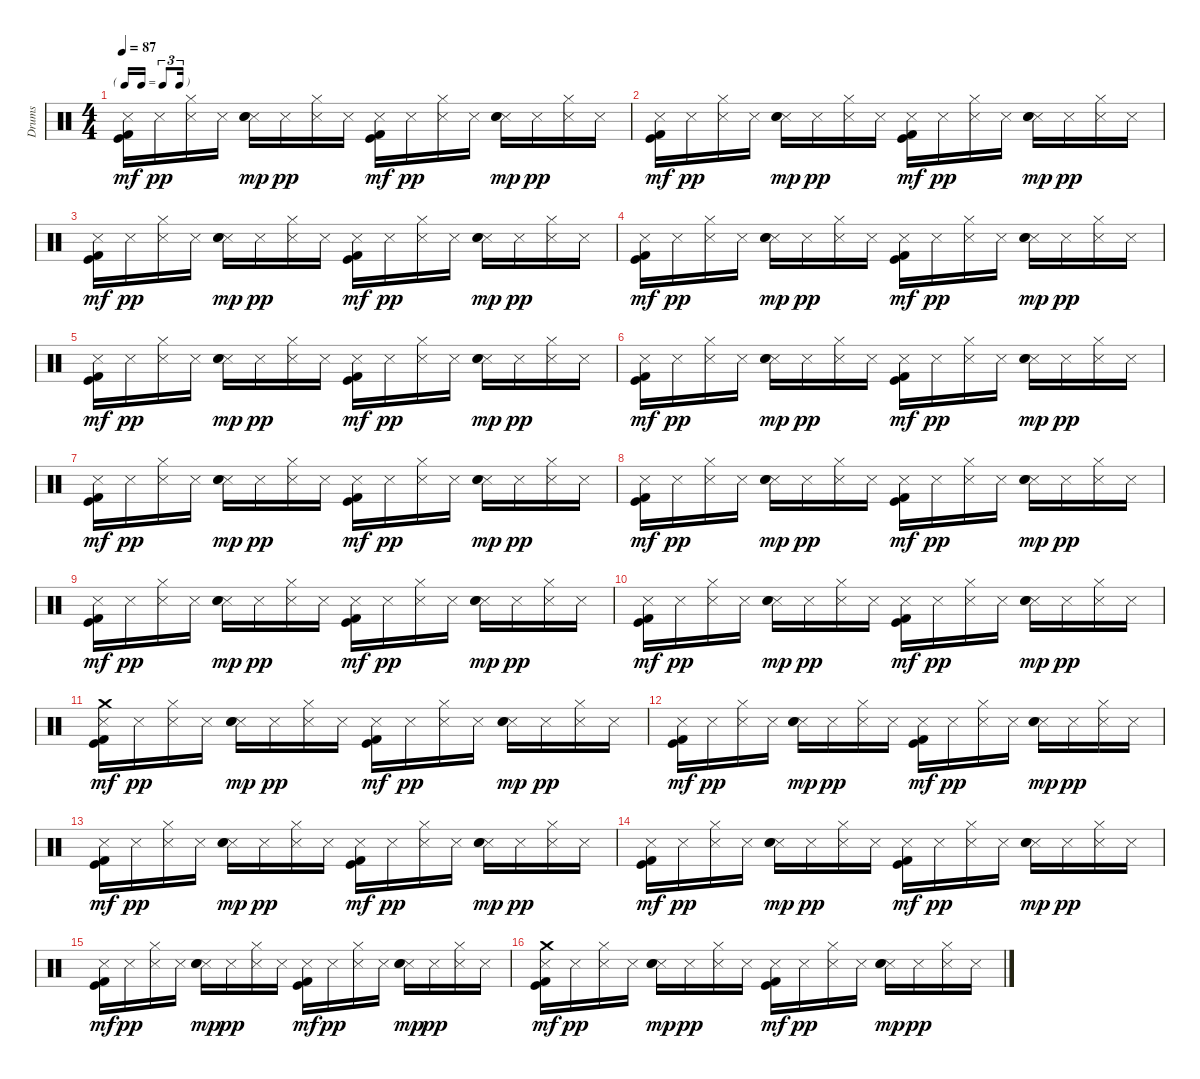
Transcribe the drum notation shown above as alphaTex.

\track ("Drums" "Drums") {instrument percussion}
\staff {score}
\articulation defaults
\ts (4 4)
\tf triplet16th
\tempo 87
\clef neutral
\ks c
("Metronome (hit)" "Kick (hit)" "Kick (hit) 2").16{dy mf} "Metronome (hit)".16{dy pp} ("Hi-Hat (closed)" "Metronome (hit)").16 "Metronome (hit)".16 ("Metronome (hit)" "Electric Snare (hit)" "Snare (hit) 2").16{dy mp} "Metronome (hit)".16{dy pp} ("Hi-Hat (closed)" "Metronome (hit)").16 "Metronome (hit)".16 ("Metronome (hit)" "Kick (hit)" "Kick (hit) 2").16{dy mf} "Metronome (hit)".16{dy pp} ("Hi-Hat (closed)" "Metronome (hit)").16 "Metronome (hit)".16 ("Metronome (hit)" "Electric Snare (hit)" "Snare (hit) 2").16{dy mp} "Metronome (hit)".16{dy pp} ("Hi-Hat (closed)" "Metronome (hit)").16 "Metronome (hit)".16 |
("Metronome (hit)" "Kick (hit)" "Kick (hit) 2").16{dy mf} "Metronome (hit)".16{dy pp} ("Hi-Hat (closed)" "Metronome (hit)").16 "Metronome (hit)".16 ("Metronome (hit)" "Electric Snare (hit)" "Snare (hit) 2").16{dy mp} "Metronome (hit)".16{dy pp} ("Hi-Hat (closed)" "Metronome (hit)").16 "Metronome (hit)".16 ("Metronome (hit)" "Kick (hit)" "Kick (hit) 2").16{dy mf} "Metronome (hit)".16{dy pp} ("Hi-Hat (closed)" "Metronome (hit)").16 "Metronome (hit)".16 ("Metronome (hit)" "Electric Snare (hit)" "Snare (hit) 2").16{dy mp} "Metronome (hit)".16{dy pp} ("Hi-Hat (closed)" "Metronome (hit)").16 "Metronome (hit)".16 |
("Metronome (hit)" "Kick (hit)" "Kick (hit) 2").16{dy mf} "Metronome (hit)".16{dy pp} ("Hi-Hat (closed)" "Metronome (hit)").16 "Metronome (hit)".16 ("Metronome (hit)" "Electric Snare (hit)" "Snare (hit) 2").16{dy mp} "Metronome (hit)".16{dy pp} ("Hi-Hat (closed)" "Metronome (hit)").16 "Metronome (hit)".16 ("Metronome (hit)" "Kick (hit)" "Kick (hit) 2").16{dy mf} "Metronome (hit)".16{dy pp} ("Hi-Hat (closed)" "Metronome (hit)").16 "Metronome (hit)".16 ("Metronome (hit)" "Electric Snare (hit)" "Snare (hit) 2").16{dy mp} "Metronome (hit)".16{dy pp} ("Hi-Hat (closed)" "Metronome (hit)").16 "Metronome (hit)".16 |
("Metronome (hit)" "Kick (hit)" "Kick (hit) 2").16{dy mf} "Metronome (hit)".16{dy pp} ("Hi-Hat (closed)" "Metronome (hit)").16 "Metronome (hit)".16 ("Metronome (hit)" "Electric Snare (hit)" "Snare (hit) 2").16{dy mp} "Metronome (hit)".16{dy pp} ("Hi-Hat (closed)" "Metronome (hit)").16 "Metronome (hit)".16 ("Metronome (hit)" "Kick (hit)" "Kick (hit) 2").16{dy mf} "Metronome (hit)".16{dy pp} ("Hi-Hat (closed)" "Metronome (hit)").16 "Metronome (hit)".16 ("Metronome (hit)" "Electric Snare (hit)" "Snare (hit) 2").16{dy mp} "Metronome (hit)".16{dy pp} ("Hi-Hat (closed)" "Metronome (hit)").16 "Metronome (hit)".16 |
("Metronome (hit)" "Kick (hit)" "Kick (hit) 2").16{dy mf} "Metronome (hit)".16{dy pp} ("Hi-Hat (closed)" "Metronome (hit)").16 "Metronome (hit)".16 ("Metronome (hit)" "Electric Snare (hit)" "Snare (hit) 2").16{dy mp} "Metronome (hit)".16{dy pp} ("Hi-Hat (closed)" "Metronome (hit)").16 "Metronome (hit)".16 ("Metronome (hit)" "Kick (hit)" "Kick (hit) 2").16{dy mf} "Metronome (hit)".16{dy pp} ("Hi-Hat (closed)" "Metronome (hit)").16 "Metronome (hit)".16 ("Metronome (hit)" "Electric Snare (hit)" "Snare (hit) 2").16{dy mp} "Metronome (hit)".16{dy pp} ("Hi-Hat (closed)" "Metronome (hit)").16 "Metronome (hit)".16 |
("Metronome (hit)" "Kick (hit)" "Kick (hit) 2").16{dy mf} "Metronome (hit)".16{dy pp} ("Hi-Hat (closed)" "Metronome (hit)").16 "Metronome (hit)".16 ("Metronome (hit)" "Electric Snare (hit)" "Snare (hit) 2").16{dy mp} "Metronome (hit)".16{dy pp} ("Hi-Hat (closed)" "Metronome (hit)").16 "Metronome (hit)".16 ("Metronome (hit)" "Kick (hit)" "Kick (hit) 2").16{dy mf} "Metronome (hit)".16{dy pp} ("Hi-Hat (closed)" "Metronome (hit)").16 "Metronome (hit)".16 ("Metronome (hit)" "Electric Snare (hit)" "Snare (hit) 2").16{dy mp} "Metronome (hit)".16{dy pp} ("Hi-Hat (closed)" "Metronome (hit)").16 "Metronome (hit)".16 |
("Metronome (hit)" "Kick (hit)" "Kick (hit) 2").16{dy mf} "Metronome (hit)".16{dy pp} ("Hi-Hat (closed)" "Metronome (hit)").16 "Metronome (hit)".16 ("Metronome (hit)" "Electric Snare (hit)" "Snare (hit) 2").16{dy mp} "Metronome (hit)".16{dy pp} ("Hi-Hat (closed)" "Metronome (hit)").16 "Metronome (hit)".16 ("Metronome (hit)" "Kick (hit)" "Kick (hit) 2").16{dy mf} "Metronome (hit)".16{dy pp} ("Hi-Hat (closed)" "Metronome (hit)").16 "Metronome (hit)".16 ("Metronome (hit)" "Electric Snare (hit)" "Snare (hit) 2").16{dy mp} "Metronome (hit)".16{dy pp} ("Hi-Hat (closed)" "Metronome (hit)").16 "Metronome (hit)".16 |
("Metronome (hit)" "Kick (hit)" "Kick (hit) 2").16{dy mf} "Metronome (hit)".16{dy pp} ("Hi-Hat (closed)" "Metronome (hit)").16 "Metronome (hit)".16 ("Metronome (hit)" "Electric Snare (hit)" "Snare (hit) 2").16{dy mp} "Metronome (hit)".16{dy pp} ("Hi-Hat (closed)" "Metronome (hit)").16 "Metronome (hit)".16 ("Metronome (hit)" "Kick (hit)" "Kick (hit) 2").16{dy mf} "Metronome (hit)".16{dy pp} ("Hi-Hat (closed)" "Metronome (hit)").16 "Metronome (hit)".16 ("Metronome (hit)" "Electric Snare (hit)" "Snare (hit) 2").16{dy mp} "Metronome (hit)".16{dy pp} ("Hi-Hat (closed)" "Metronome (hit)").16 "Metronome (hit)".16 |
("Metronome (hit)" "Kick (hit)" "Kick (hit) 2").16{dy mf} "Metronome (hit)".16{dy pp} ("Hi-Hat (closed)" "Metronome (hit)").16 "Metronome (hit)".16 ("Metronome (hit)" "Electric Snare (hit)" "Snare (hit) 2").16{dy mp} "Metronome (hit)".16{dy pp} ("Hi-Hat (closed)" "Metronome (hit)").16 "Metronome (hit)".16 ("Metronome (hit)" "Kick (hit)" "Kick (hit) 2").16{dy mf} "Metronome (hit)".16{dy pp} ("Hi-Hat (closed)" "Metronome (hit)").16 "Metronome (hit)".16 ("Metronome (hit)" "Electric Snare (hit)" "Snare (hit) 2").16{dy mp} "Metronome (hit)".16{dy pp} ("Hi-Hat (closed)" "Metronome (hit)").16 "Metronome (hit)".16 |
("Metronome (hit)" "Kick (hit)" "Kick (hit) 2").16{dy mf} "Metronome (hit)".16{dy pp} ("Hi-Hat (closed)" "Metronome (hit)").16 "Metronome (hit)".16 ("Metronome (hit)" "Electric Snare (hit)" "Snare (hit) 2").16{dy mp} "Metronome (hit)".16{dy pp} ("Hi-Hat (closed)" "Metronome (hit)").16 "Metronome (hit)".16 ("Metronome (hit)" "Kick (hit)" "Kick (hit) 2").16{dy mf} "Metronome (hit)".16{dy pp} ("Hi-Hat (closed)" "Metronome (hit)").16 "Metronome (hit)".16 ("Metronome (hit)" "Electric Snare (hit)" "Snare (hit) 2").16{dy mp} "Metronome (hit)".16{dy pp} ("Hi-Hat (closed)" "Metronome (hit)").16 "Metronome (hit)".16 |
("Metronome (hit)" "Crash medium (hit)" "Kick (hit)" "Kick (hit) 2").16{dy mf} "Metronome (hit)".16{dy pp} ("Hi-Hat (closed)" "Metronome (hit)").16 "Metronome (hit)".16 ("Metronome (hit)" "Electric Snare (hit)" "Snare (hit) 2").16{dy mp} "Metronome (hit)".16{dy pp} ("Hi-Hat (closed)" "Metronome (hit)").16 "Metronome (hit)".16 ("Metronome (hit)" "Kick (hit)" "Kick (hit) 2").16{dy mf} "Metronome (hit)".16{dy pp} ("Hi-Hat (closed)" "Metronome (hit)").16 "Metronome (hit)".16 ("Metronome (hit)" "Electric Snare (hit)" "Snare (hit) 2").16{dy mp} "Metronome (hit)".16{dy pp} ("Hi-Hat (closed)" "Metronome (hit)").16 "Metronome (hit)".16 |
("Metronome (hit)" "Kick (hit)" "Kick (hit) 2").16{dy mf} "Metronome (hit)".16{dy pp} ("Hi-Hat (closed)" "Metronome (hit)").16 "Metronome (hit)".16 ("Metronome (hit)" "Electric Snare (hit)" "Snare (hit) 2").16{dy mp} "Metronome (hit)".16{dy pp} ("Hi-Hat (closed)" "Metronome (hit)").16 "Metronome (hit)".16 ("Metronome (hit)" "Kick (hit)" "Kick (hit) 2").16{dy mf} "Metronome (hit)".16{dy pp} ("Hi-Hat (closed)" "Metronome (hit)").16 "Metronome (hit)".16 ("Metronome (hit)" "Electric Snare (hit)" "Snare (hit) 2").16{dy mp} "Metronome (hit)".16{dy pp} ("Hi-Hat (closed)" "Metronome (hit)").16 "Metronome (hit)".16 |
("Metronome (hit)" "Kick (hit)" "Kick (hit) 2").16{dy mf} "Metronome (hit)".16{dy pp} ("Hi-Hat (closed)" "Metronome (hit)").16 "Metronome (hit)".16 ("Metronome (hit)" "Electric Snare (hit)" "Snare (hit) 2").16{dy mp} "Metronome (hit)".16{dy pp} ("Hi-Hat (closed)" "Metronome (hit)").16 "Metronome (hit)".16 ("Metronome (hit)" "Kick (hit)" "Kick (hit) 2").16{dy mf} "Metronome (hit)".16{dy pp} ("Hi-Hat (closed)" "Metronome (hit)").16 "Metronome (hit)".16 ("Metronome (hit)" "Electric Snare (hit)" "Snare (hit) 2").16{dy mp} "Metronome (hit)".16{dy pp} ("Hi-Hat (closed)" "Metronome (hit)").16 "Metronome (hit)".16 |
("Metronome (hit)" "Kick (hit)" "Kick (hit) 2").16{dy mf} "Metronome (hit)".16{dy pp} ("Hi-Hat (closed)" "Metronome (hit)").16 "Metronome (hit)".16 ("Metronome (hit)" "Electric Snare (hit)" "Snare (hit) 2").16{dy mp} "Metronome (hit)".16{dy pp} ("Hi-Hat (closed)" "Metronome (hit)").16 "Metronome (hit)".16 ("Metronome (hit)" "Kick (hit)" "Kick (hit) 2").16{dy mf} "Metronome (hit)".16{dy pp} ("Hi-Hat (closed)" "Metronome (hit)").16 "Metronome (hit)".16 ("Metronome (hit)" "Electric Snare (hit)" "Snare (hit) 2").16{dy mp} "Metronome (hit)".16{dy pp} ("Hi-Hat (closed)" "Metronome (hit)").16 "Metronome (hit)".16 |
("Metronome (hit)" "Kick (hit)" "Kick (hit) 2").16{dy mf} "Metronome (hit)".16{dy pp} ("Hi-Hat (closed)" "Metronome (hit)").16 "Metronome (hit)".16 ("Metronome (hit)" "Electric Snare (hit)" "Snare (hit) 2").16{dy mp} "Metronome (hit)".16{dy pp} ("Hi-Hat (closed)" "Metronome (hit)").16 "Metronome (hit)".16 ("Metronome (hit)" "Kick (hit)" "Kick (hit) 2").16{dy mf} "Metronome (hit)".16{dy pp} ("Hi-Hat (closed)" "Metronome (hit)").16 "Metronome (hit)".16 ("Metronome (hit)" "Electric Snare (hit)" "Snare (hit) 2").16{dy mp} "Metronome (hit)".16{dy pp} ("Hi-Hat (closed)" "Metronome (hit)").16 "Metronome (hit)".16 |
("Metronome (hit)" "Crash medium (hit)" "Kick (hit)" "Kick (hit) 2").16{dy mf} "Metronome (hit)".16{dy pp} ("Hi-Hat (closed)" "Metronome (hit)").16 "Metronome (hit)".16 ("Metronome (hit)" "Electric Snare (hit)" "Snare (hit) 2").16{dy mp} "Metronome (hit)".16{dy pp} ("Hi-Hat (closed)" "Metronome (hit)").16 "Metronome (hit)".16 ("Metronome (hit)" "Kick (hit)" "Kick (hit) 2").16{dy mf} "Metronome (hit)".16{dy pp} ("Hi-Hat (closed)" "Metronome (hit)").16 "Metronome (hit)".16 ("Metronome (hit)" "Electric Snare (hit)" "Snare (hit) 2").16{dy mp} "Metronome (hit)".16{dy pp} ("Hi-Hat (closed)" "Metronome (hit)").16 "Metronome (hit)".16
